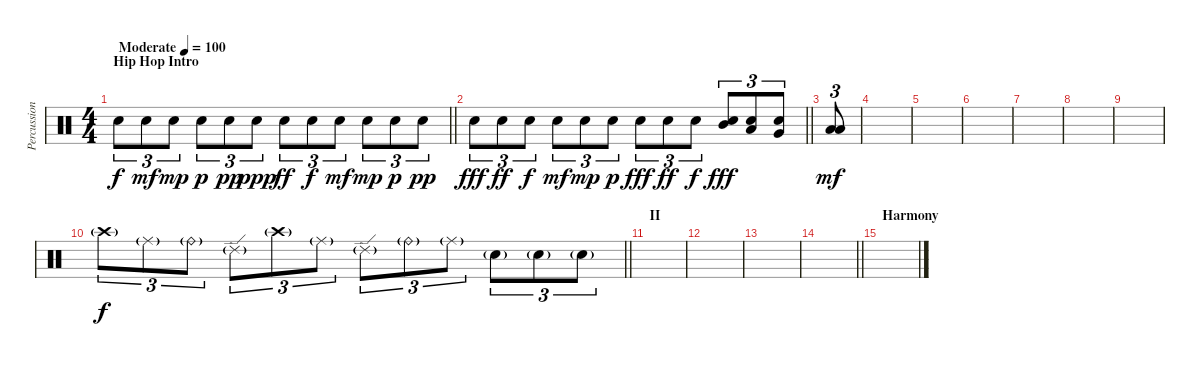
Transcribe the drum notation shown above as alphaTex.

\track ("Percussion" "Percussion") {instrument percussion}
\staff {score}
\articulation defaults
\ts (4 4)
\section ("" "Hip Hop Intro")
\tempo (100 "Moderate")
\tempo 150
\tempo (100 "Moderate")
\clef neutral
\barLineRight lightlight
\ks c "Snare (hit) 2".8{tu (3 2) dy f} "Snare (hit) 2".8{tu (3 2) dy mf} "Snare (hit) 2".8{tu (3 2) dy mp} "Snare (hit) 2".8{tu (3 2) dy p} "Snare (hit) 2".8{tu (3 2) dy pp} "Snare (hit) 2".8{tu (3 2) dy ppp} "Snare (hit) 2".8{tu (3 2) dy ff} "Snare (hit) 2".8{tu (3 2) dy f} "Snare (hit) 2".8{tu (3 2) dy mf} "Snare (hit) 2".8{tu (3 2) dy mp} "Snare (hit) 2".8{tu (3 2) dy p} "Snare (hit) 2".8{tu (3 2) dy pp}
|
\barLineRight lightlight "Snare (hit) 2".8{tu (3 2) dy fff} "Snare (hit) 2".8{tu (3 2) dy ff} "Snare (hit) 2".8{tu (3 2) dy f} "Snare (hit) 2".8{tu (3 2) dy mf} "Snare (hit) 2".8{tu (3 2) dy mp} "Snare (hit) 2".8{tu (3 2) dy p} "Snare (hit) 2".8{tu (3 2) dy fff} "Snare (hit) 2".8{tu (3 2) dy ff} "Snare (hit) 2".8{tu (3 2) dy f}
("Mid Tom (hit)" "Snare (hit) 2").8{tu (3 2) dy fff} ("Low Tom (hit)" "Snare (hit) 2").8{tu (3 2)} ("Very Low Tom (hit)" "Snare (hit) 2").8{tu (3 2)} |
("Low Tom (hit)" "Low Floor Tom (hit)").8{tu (3 2) dy mf} |
|
|
|
|
|
|
\barLineRight lightlight "Crash high (hit)"{g}.8{tu (3 2) dy f} "Ride (middle)"{g}.8{tu (3 2)} "Ride (bell)"{g}.8{tu (3 2)} "Ride (edge) 2"{g}.8{tu (3 2)} "Crash high (hit)"{g}.8{tu (3 2)} "Ride (middle)"{g}.8{tu (3 2)} "Ride (edge) 2"{g}.8{tu (3 2)} "Ride (bell)"{g}.8{tu (3 2)} "Ride (middle)"{g}.8{tu (3 2)} "Electric Snare (hit)"{g}.8{tu (3 2)} "Electric Snare (hit)"{g}.8{tu (3 2)} "Electric Snare (hit)"{g}.8{tu (3 2)}
|
\section ("" "II")
|
|
|
\barLineRight lightlight
|
\section ("" "Harmony")
